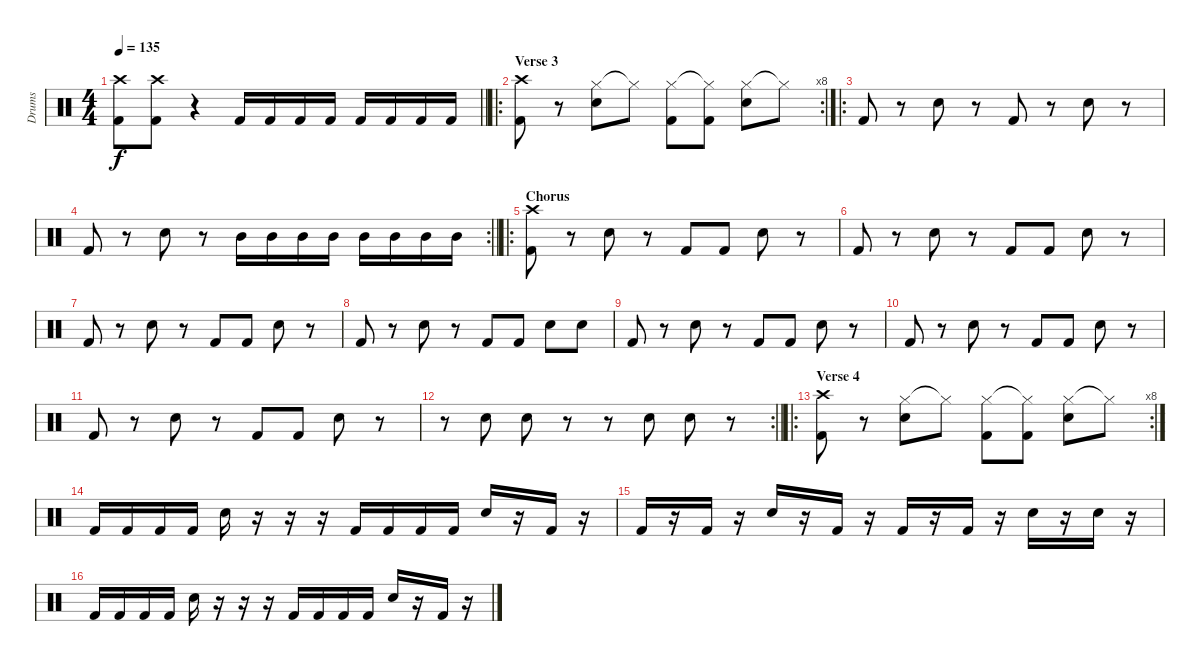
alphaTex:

\track ("Drums" "Drums") {instrument percussion}
\staff {score}
\articulation defaults
\ts (4 4)
\tempo 135
\clef neutral
\barLineRight lightlight
\ks c
("Crash high (hit)" "Kick (hit) 2").8{dy f} ("Crash high (hit)" "Kick (hit) 2").8 r.4 "Kick (hit) 2".16 "Kick (hit) 2".16 "Kick (hit) 2".16 "Kick (hit) 2".16 "Kick (hit) 2".16 "Kick (hit) 2".16 "Kick (hit) 2".16 "Kick (hit) 2".16 |
\ro
\rc 8
\section ("" "Verse 3")
("Crash high (hit)" "Kick (hit) 2").8 r.8 ("Hi-Hat (closed)" "Snare (hit) 2").8 "Hi-Hat (closed)"{t}.8 ("Hi-Hat (closed)" "Kick (hit) 2").8 ("Hi-Hat (closed)"{t} "Kick (hit) 2").8 ("Hi-Hat (closed)" "Snare (hit) 2").8 "Hi-Hat (closed)"{t}.8 |
\ro "Kick (hit) 2".8
r.8 "Snare (hit) 2".8 r.8 "Kick (hit) 2".8 r.8 "Snare (hit) 2".8 r.8 |
\rc 2
\barLineRight lightlight "Kick (hit) 2".8
r.8 "Snare (hit) 2".8 r.8 "Mid Tom (hit)".16 "Mid Tom (hit)".16 "Mid Tom (hit)".16 "Mid Tom (hit)".16 "Mid Tom (hit)".16 "Mid Tom (hit)".16 "Mid Tom (hit)".16 "Mid Tom (hit)".16 |
\ro
\section ("" "Chorus")
("Crash high (hit)" "Kick (hit) 2").8 r.8 "Snare (hit) 2".8 r.8 "Kick (hit) 2".8 "Kick (hit) 2".8 "Snare (hit) 2".8 r.8 |
"Kick (hit) 2".8 r.8 "Snare (hit) 2".8 r.8 "Kick (hit) 2".8 "Kick (hit) 2".8 "Snare (hit) 2".8 r.8 |
"Kick (hit) 2".8 r.8 "Snare (hit) 2".8 r.8 "Kick (hit) 2".8 "Kick (hit) 2".8 "Snare (hit) 2".8 r.8 |
"Kick (hit) 2".8 r.8 "Snare (hit) 2".8 r.8 "Kick (hit) 2".8 "Kick (hit) 2".8 "Snare (hit) 2".8 "Snare (hit) 2".8 |
"Kick (hit) 2".8 r.8 "Snare (hit) 2".8 r.8 "Kick (hit) 2".8 "Kick (hit) 2".8 "Snare (hit) 2".8 r.8 |
"Kick (hit) 2".8 r.8 "Snare (hit) 2".8 r.8 "Kick (hit) 2".8 "Kick (hit) 2".8 "Snare (hit) 2".8 r.8 |
"Kick (hit) 2".8 r.8 "Snare (hit) 2".8 r.8 "Kick (hit) 2".8 "Kick (hit) 2".8 "Snare (hit) 2".8 r.8 |
\rc 2
\barLineRight lightlight
r.8 "Snare (hit) 2".8 "Snare (hit) 2".8 r.8 r.8 "Snare (hit) 2".8 "Snare (hit) 2".8 r.8 |
\ro
\rc 8
\section ("" "Verse 4")
("Crash high (hit)" "Kick (hit) 2").8 r.8 ("Hi-Hat (closed)" "Snare (hit) 2").8 "Hi-Hat (closed)"{t}.8 ("Hi-Hat (closed)" "Kick (hit) 2").8 ("Hi-Hat (closed)"{t} "Kick (hit) 2").8 ("Hi-Hat (closed)" "Snare (hit) 2").8 "Hi-Hat (closed)"{t}.8 |
"Kick (hit) 2".16 "Kick (hit) 2".16 "Kick (hit) 2".16 "Kick (hit) 2".16 "Snare (hit) 2".16 r.16 r.16 r.16 "Kick (hit) 2".16 "Kick (hit) 2".16 "Kick (hit) 2".16 "Kick (hit) 2".16 "Snare (hit) 2".16 r.16 "Kick (hit) 2".16 r.16 |
"Kick (hit) 2".16 r.16 "Kick (hit) 2".16 r.16 "Snare (hit) 2".16 r.16 "Kick (hit) 2".16 r.16 "Kick (hit) 2".16 r.16 "Kick (hit) 2".16 r.16 "Snare (hit) 2".16 r.16 "Snare (hit) 2".16 r.16 |
"Kick (hit) 2".16 "Kick (hit) 2".16 "Kick (hit) 2".16 "Kick (hit) 2".16 "Snare (hit) 2".16 r.16 r.16 r.16 "Kick (hit) 2".16 "Kick (hit) 2".16 "Kick (hit) 2".16 "Kick (hit) 2".16 "Snare (hit) 2".16 r.16 "Kick (hit) 2".16 r.16
